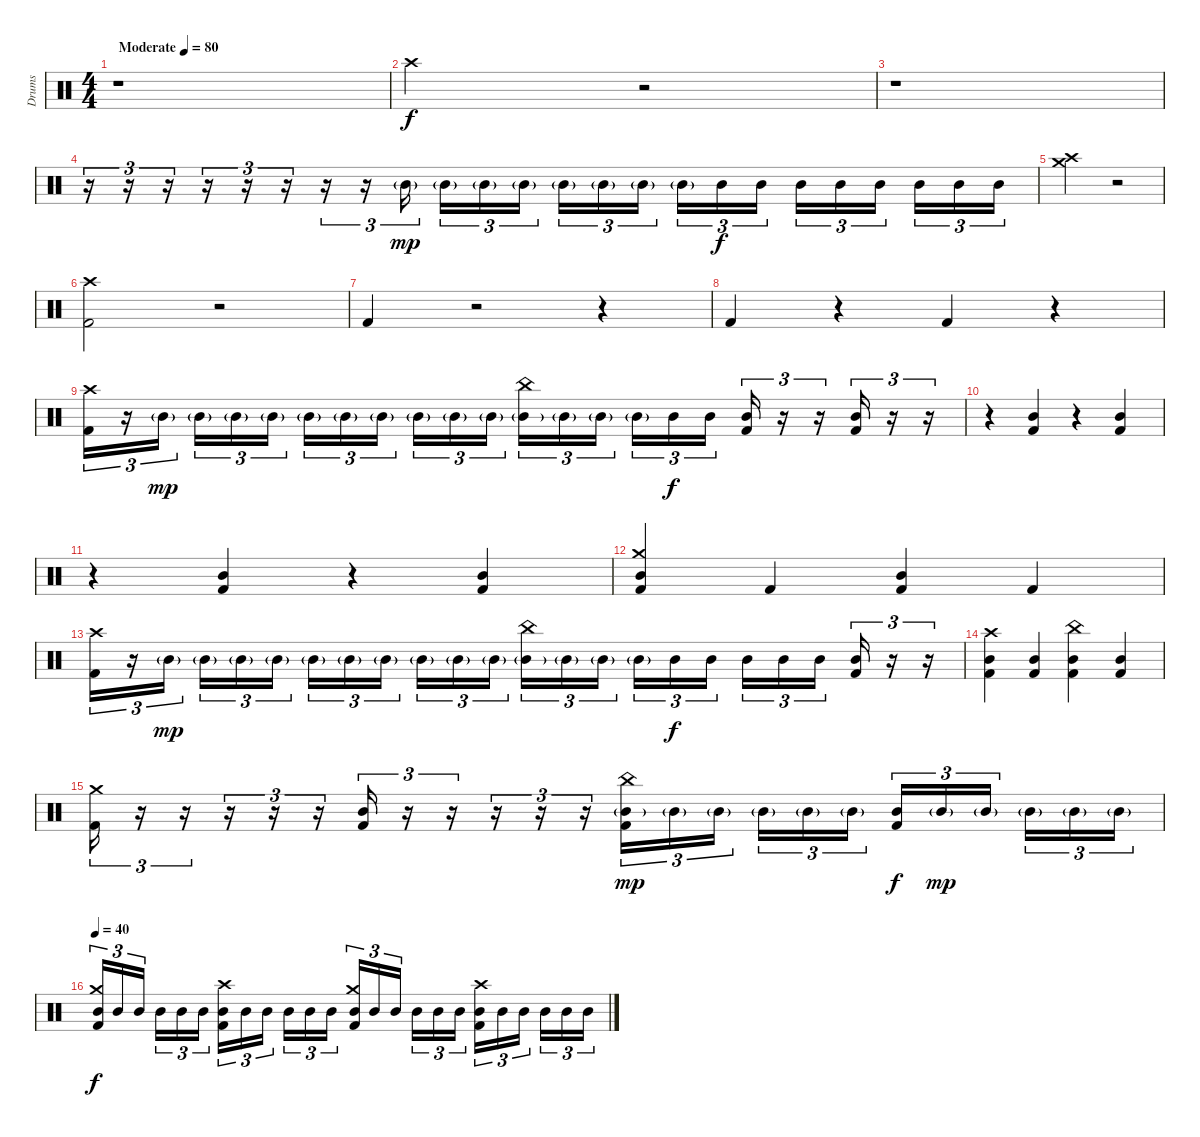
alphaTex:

\track ("Drums" "Drums") {instrument percussion}
\staff {score}
\articulation defaults
\ts (4 4)
\tempo (80 "Moderate")
\clef neutral
\ks c
r.1{dy f} |
"Crash high (hit)".2 r.2 |
r.1 |
r.16{tu (3 2)} r.16{tu (3 2)} r.16{tu (3 2)} r.16{tu (3 2)} r.16{tu (3 2)} r.16{tu (3 2)} r.16{tu (3 2)} r.16{tu (3 2)} "Mid Tom (hit)"{g}.16{tu (3 2) dy mp beam splitsecondary} "Mid Tom (hit)"{g}.16{tu (3 2)} "Mid Tom (hit)"{g}.16{tu (3 2)} "Mid Tom (hit)"{g}.16{tu (3 2)} "Mid Tom (hit)"{g}.16{tu (3 2)} "Mid Tom (hit)"{g}.16{tu (3 2)} "Mid Tom (hit)"{g}.16{tu (3 2) beam splitsecondary} "Mid Tom (hit)"{g}.16{tu (3 2)} "Mid Tom (hit)".16{tu (3 2) dy f} "Mid Tom (hit)".16{tu (3 2)} "Mid Tom (hit)".16{tu (3 2)} "Mid Tom (hit)".16{tu (3 2)} "Mid Tom (hit)".16{tu (3 2) beam splitsecondary} "Mid Tom (hit)".16{tu (3 2)} "Mid Tom (hit)".16{tu (3 2)} "Mid Tom (hit)".16{tu (3 2)} |
("Crash high (hit)" "Crash medium (hit)").2 r.2 |
("Crash high (hit)" "Kick (hit) 2").2 r.2 |
"Kick (hit) 2".4 r.2 r.4 |
"Kick (hit) 2".4 r.4 "Kick (hit) 2".4 r.4 |
("Crash high (hit)" "Kick (hit) 2").16{tu (3 2)} r.16{tu (3 2)} "Mid Tom (hit)"{g}.16{tu (3 2) dy mp beam splitsecondary} "Mid Tom (hit)"{g}.16{tu (3 2)} "Mid Tom (hit)"{g}.16{tu (3 2)} "Mid Tom (hit)"{g}.16{tu (3 2)} "Mid Tom (hit)"{g}.16{tu (3 2)} "Mid Tom (hit)"{g}.16{tu (3 2)} "Mid Tom (hit)"{g}.16{tu (3 2) beam splitsecondary} "Mid Tom (hit)"{g}.16{tu (3 2)} "Mid Tom (hit)"{g}.16{tu (3 2)} "Mid Tom (hit)"{g}.16{tu (3 2)} ("China (hit)" "Mid Tom (hit)"{g}).16{tu (3 2)} "Mid Tom (hit)"{g}.16{tu (3 2)} "Mid Tom (hit)"{g}.16{tu (3 2) beam splitsecondary} "Mid Tom (hit)"{g}.16{tu (3 2)} "Mid Tom (hit)".16{tu (3 2) dy f} "Mid Tom (hit)".16{tu (3 2)} ("Mid Tom (hit)" "Kick (hit) 2").16{tu (3 2)} r.16{tu (3 2)} r.16{tu (3 2)} ("Mid Tom (hit)" "Kick (hit) 2").16{tu (3 2)} r.16{tu (3 2)} r.16{tu (3 2)} |
r.4 ("Mid Tom (hit)" "Kick (hit) 2").4 r.4 ("Mid Tom (hit)" "Kick (hit) 2").4 |
r.4 ("Mid Tom (hit)" "Kick (hit) 2").4 r.4 ("Mid Tom (hit)" "Kick (hit) 2").4 |
("Crash medium (hit)" "Mid Tom (hit)" "Kick (hit) 2").4 "Kick (hit) 2".4 ("Mid Tom (hit)" "Kick (hit) 2").4 "Kick (hit) 2".4 |
("Crash high (hit)" "Kick (hit) 2").16{tu (3 2)} r.16{tu (3 2)} "Mid Tom (hit)"{g}.16{tu (3 2) dy mp beam splitsecondary} "Mid Tom (hit)"{g}.16{tu (3 2)} "Mid Tom (hit)"{g}.16{tu (3 2)} "Mid Tom (hit)"{g}.16{tu (3 2)} "Mid Tom (hit)"{g}.16{tu (3 2)} "Mid Tom (hit)"{g}.16{tu (3 2)} "Mid Tom (hit)"{g}.16{tu (3 2) beam splitsecondary} "Mid Tom (hit)"{g}.16{tu (3 2)} "Mid Tom (hit)"{g}.16{tu (3 2)} "Mid Tom (hit)"{g}.16{tu (3 2)} ("China (hit)" "Mid Tom (hit)"{g}).16{tu (3 2)} "Mid Tom (hit)"{g}.16{tu (3 2)} "Mid Tom (hit)"{g}.16{tu (3 2) beam splitsecondary} "Mid Tom (hit)"{g}.16{tu (3 2)} "Mid Tom (hit)".16{tu (3 2) dy f} "Mid Tom (hit)".16{tu (3 2)} "Mid Tom (hit)".16{tu (3 2)} "Mid Tom (hit)".16{tu (3 2)} "Mid Tom (hit)".16{tu (3 2) beam splitsecondary} ("Mid Tom (hit)" "Kick (hit) 2").16{tu (3 2)} r.16{tu (3 2)} r.16{tu (3 2)} |
("Crash high (hit)" "Mid Tom (hit)" "Kick (hit) 2").4 ("Mid Tom (hit)" "Kick (hit) 2").4 ("China (hit)" "Mid Tom (hit)" "Kick (hit) 2").4 ("Mid Tom (hit)" "Kick (hit) 2").4 |
("Crash medium (hit)" "Kick (hit) 2").16{tu (3 2)} r.16{tu (3 2)} r.16{tu (3 2)} r.16{tu (3 2)} r.16{tu (3 2)} r.16{tu (3 2)} ("Mid Tom (hit)" "Kick (hit) 2").16{tu (3 2)} r.16{tu (3 2)} r.16{tu (3 2)} r.16{tu (3 2)} r.16{tu (3 2)} r.16{tu (3 2)} ("China (hit)" "Mid Tom (hit)"{g} "Kick (hit) 2").16{tu (3 2) dy mp} "Mid Tom (hit)"{g}.16{tu (3 2)} "Mid Tom (hit)"{g}.16{tu (3 2) beam splitsecondary} "Mid Tom (hit)"{g}.16{tu (3 2)} "Mid Tom (hit)"{g}.16{tu (3 2)} "Mid Tom (hit)"{g}.16{tu (3 2)} ("Mid Tom (hit)" "Kick (hit) 2").16{tu (3 2) dy f} "Mid Tom (hit)"{g}.16{tu (3 2) dy mp} "Mid Tom (hit)"{g}.16{tu (3 2) beam splitsecondary} "Mid Tom (hit)"{g}.16{tu (3 2)} "Mid Tom (hit)"{g}.16{tu (3 2)} "Mid Tom (hit)"{g}.16{tu (3 2)} |
\tempo 40
("Crash medium (hit)" "Mid Tom (hit)" "Kick (hit) 2").16{tu (3 2) dy f} "Mid Tom (hit)".16{tu (3 2)} "Mid Tom (hit)".16{tu (3 2) beam splitsecondary} "Mid Tom (hit)".16{tu (3 2)} "Mid Tom (hit)".16{tu (3 2)} "Mid Tom (hit)".16{tu (3 2)} ("Crash high (hit)" "Mid Tom (hit)" "Kick (hit) 2").16{tu (3 2)} "Mid Tom (hit)".16{tu (3 2)} "Mid Tom (hit)".16{tu (3 2) beam splitsecondary} "Mid Tom (hit)".16{tu (3 2)} "Mid Tom (hit)".16{tu (3 2)} "Mid Tom (hit)".16{tu (3 2)} ("Crash medium (hit)" "Mid Tom (hit)" "Kick (hit) 2").16{tu (3 2)} "Mid Tom (hit)".16{tu (3 2)} "Mid Tom (hit)".16{tu (3 2) beam splitsecondary} "Mid Tom (hit)".16{tu (3 2)} "Mid Tom (hit)".16{tu (3 2)} "Mid Tom (hit)".16{tu (3 2)} ("Crash high (hit)" "Mid Tom (hit)" "Kick (hit) 2").16{tu (3 2)} "Mid Tom (hit)".16{tu (3 2)} "Mid Tom (hit)".16{tu (3 2) beam splitsecondary} "Mid Tom (hit)".16{tu (3 2)} "Mid Tom (hit)".16{tu (3 2)} "Mid Tom (hit)".16{tu (3 2)}
